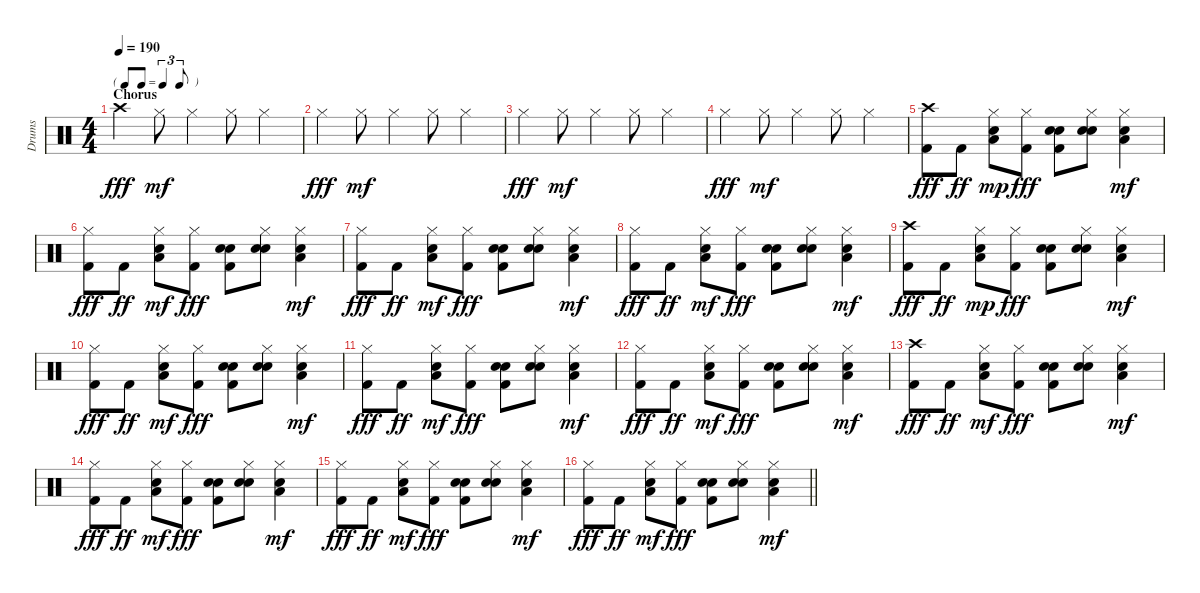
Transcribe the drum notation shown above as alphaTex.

\track ("Drums" "Drums") {instrument percussion}
\staff {score}
\articulation defaults
\ts (4 4)
\tf triplet8th
\section ("" "Chorus")
\tempo 190
\clef neutral
\ks c "Crash high (hit)".4{dy fff} "Hi-Hat (closed)".8{dy mf} "Hi-Hat (closed)".4 "Hi-Hat (closed)".8 "Hi-Hat (closed)".4
|
"Hi-Hat (closed)".4{dy fff} "Hi-Hat (closed)".8{dy mf} "Hi-Hat (closed)".4 "Hi-Hat (closed)".8 "Hi-Hat (closed)".4 |
"Hi-Hat (closed)".4{dy fff} "Hi-Hat (closed)".8{dy mf} "Hi-Hat (closed)".4 "Hi-Hat (closed)".8 "Hi-Hat (closed)".4 |
"Hi-Hat (closed)".4{dy fff} "Hi-Hat (closed)".8{dy mf} "Hi-Hat (closed)".4 "Hi-Hat (closed)".8 "Hi-Hat (closed)".4 |
("Crash high (hit)" "Kick (hit) 2").8{dy fff} "Kick (hit) 2".8{dy ff} ("Hi-Hat (closed)" "Low Tom (hit)" "Hand Clap (hit)").8{dy mp} ("Hi-Hat (closed)" "Kick (hit) 2").8{dy fff} ("Kick (hit) 2" "Hand Clap (hit)" "Hand Clap (hit)").8 ("Hi-Hat (closed)" "Hand Clap (hit)" "Hand Clap (hit)").8 ("Hi-Hat (closed)" "Low Tom (hit)" "Hand Clap (hit)").4{dy mf} |
("Hi-Hat (closed)" "Kick (hit) 2").8{dy fff} "Kick (hit) 2".8{dy ff} ("Hi-Hat (closed)" "Low Tom (hit)" "Hand Clap (hit)").8{dy mf} ("Hi-Hat (closed)" "Kick (hit) 2").8{dy fff} ("Kick (hit) 2" "Hand Clap (hit)" "Hand Clap (hit)").8 ("Hi-Hat (closed)" "Hand Clap (hit)" "Hand Clap (hit)").8 ("Hi-Hat (closed)" "Low Tom (hit)" "Hand Clap (hit)").4{dy mf} |
("Hi-Hat (closed)" "Kick (hit) 2").8{dy fff} "Kick (hit) 2".8{dy ff} ("Hi-Hat (closed)" "Low Tom (hit)" "Hand Clap (hit)").8{dy mf} ("Hi-Hat (closed)" "Kick (hit) 2").8{dy fff} ("Kick (hit) 2" "Hand Clap (hit)" "Hand Clap (hit)").8 ("Hi-Hat (closed)" "Hand Clap (hit)" "Hand Clap (hit)").8 ("Hi-Hat (closed)" "Low Tom (hit)" "Hand Clap (hit)").4{dy mf} |
("Hi-Hat (closed)" "Kick (hit) 2").8{dy fff} "Kick (hit) 2".8{dy ff} ("Hi-Hat (closed)" "Low Tom (hit)" "Hand Clap (hit)").8{dy mf} ("Hi-Hat (closed)" "Kick (hit) 2").8{dy fff} ("Kick (hit) 2" "Hand Clap (hit)" "Hand Clap (hit)").8 ("Hi-Hat (closed)" "Hand Clap (hit)" "Hand Clap (hit)").8 ("Hi-Hat (closed)" "Low Tom (hit)" "Hand Clap (hit)").4{dy mf} |
("Crash high (hit)" "Kick (hit) 2").8{dy fff} "Kick (hit) 2".8{dy ff} ("Hi-Hat (closed)" "Low Tom (hit)" "Hand Clap (hit)").8{dy mp} ("Hi-Hat (closed)" "Kick (hit) 2").8{dy fff} ("Kick (hit) 2" "Hand Clap (hit)" "Hand Clap (hit)").8 ("Hi-Hat (closed)" "Hand Clap (hit)" "Hand Clap (hit)").8 ("Hi-Hat (closed)" "Low Tom (hit)" "Hand Clap (hit)").4{dy mf} |
("Hi-Hat (closed)" "Kick (hit) 2").8{dy fff} "Kick (hit) 2".8{dy ff} ("Hi-Hat (closed)" "Low Tom (hit)" "Hand Clap (hit)").8{dy mf} ("Hi-Hat (closed)" "Kick (hit) 2").8{dy fff} ("Kick (hit) 2" "Hand Clap (hit)" "Hand Clap (hit)").8 ("Hi-Hat (closed)" "Hand Clap (hit)" "Hand Clap (hit)").8 ("Hi-Hat (closed)" "Low Tom (hit)" "Hand Clap (hit)").4{dy mf} |
("Hi-Hat (closed)" "Kick (hit) 2").8{dy fff} "Kick (hit) 2".8{dy ff} ("Hi-Hat (closed)" "Low Tom (hit)" "Hand Clap (hit)").8{dy mf} ("Hi-Hat (closed)" "Kick (hit) 2").8{dy fff} ("Kick (hit) 2" "Hand Clap (hit)" "Hand Clap (hit)").8 ("Hi-Hat (closed)" "Hand Clap (hit)" "Hand Clap (hit)").8 ("Hi-Hat (closed)" "Low Tom (hit)" "Hand Clap (hit)").4{dy mf} |
("Hi-Hat (closed)" "Kick (hit) 2").8{dy fff} "Kick (hit) 2".8{dy ff} ("Hi-Hat (closed)" "Low Tom (hit)" "Hand Clap (hit)").8{dy mf} ("Hi-Hat (closed)" "Kick (hit) 2").8{dy fff} ("Kick (hit) 2" "Hand Clap (hit)" "Hand Clap (hit)").8 ("Hi-Hat (closed)" "Hand Clap (hit)" "Hand Clap (hit)").8 ("Hi-Hat (closed)" "Low Tom (hit)" "Hand Clap (hit)").4{dy mf} |
("Crash high (hit)" "Kick (hit) 2").8{dy fff} "Kick (hit) 2".8{dy ff} ("Hi-Hat (closed)" "Low Tom (hit)" "Hand Clap (hit)").8{dy mf} ("Hi-Hat (closed)" "Kick (hit) 2").8{dy fff} ("Kick (hit) 2" "Hand Clap (hit)" "Hand Clap (hit)").8 ("Hi-Hat (closed)" "Hand Clap (hit)" "Hand Clap (hit)").8 ("Hi-Hat (closed)" "Low Tom (hit)" "Hand Clap (hit)").4{dy mf} |
("Hi-Hat (closed)" "Kick (hit) 2").8{dy fff} "Kick (hit) 2".8{dy ff} ("Hi-Hat (closed)" "Low Tom (hit)" "Hand Clap (hit)").8{dy mf} ("Hi-Hat (closed)" "Kick (hit) 2").8{dy fff} ("Kick (hit) 2" "Hand Clap (hit)" "Hand Clap (hit)").8 ("Hi-Hat (closed)" "Hand Clap (hit)" "Hand Clap (hit)").8 ("Hi-Hat (closed)" "Low Tom (hit)" "Hand Clap (hit)").4{dy mf} |
("Hi-Hat (closed)" "Kick (hit) 2").8{dy fff} "Kick (hit) 2".8{dy ff} ("Hi-Hat (closed)" "Low Tom (hit)" "Hand Clap (hit)").8{dy mf} ("Hi-Hat (closed)" "Kick (hit) 2").8{dy fff} ("Kick (hit) 2" "Hand Clap (hit)" "Hand Clap (hit)").8 ("Hi-Hat (closed)" "Hand Clap (hit)" "Hand Clap (hit)").8 ("Hi-Hat (closed)" "Low Tom (hit)" "Hand Clap (hit)").4{dy mf} |
\barLineRight lightlight
("Hi-Hat (closed)" "Kick (hit) 2").8{dy fff} "Kick (hit) 2".8{dy ff} ("Hi-Hat (closed)" "Low Tom (hit)" "Hand Clap (hit)").8{dy mf} ("Hi-Hat (closed)" "Kick (hit) 2").8{dy fff} ("Kick (hit) 2" "Hand Clap (hit)" "Hand Clap (hit)").8 ("Hi-Hat (closed)" "Hand Clap (hit)" "Hand Clap (hit)").8 ("Hi-Hat (closed)" "Low Tom (hit)" "Hand Clap (hit)").4{dy mf}
